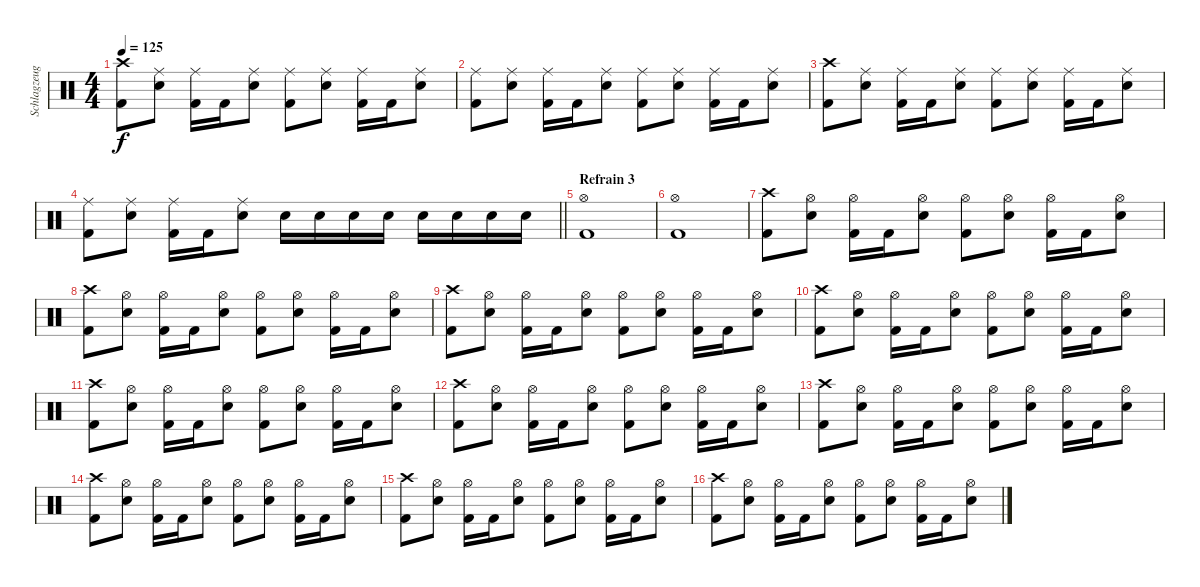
\track ("Schlagzeug" "Schlagzeug") {instrument percussion}
\staff {score}
\articulation defaults
\ts (4 4)
\tempo 125
\clef neutral
\ks c
("Crash high (hit)" "Kick (hit) 2").8{dy f} ("Ride (middle)" "Electric Snare (hit)").8 ("Ride (middle)" "Kick (hit) 2").16 "Kick (hit) 2".16 ("Ride (middle)" "Electric Snare (hit)").8 ("Ride (middle)" "Kick (hit) 2").8 ("Ride (middle)" "Electric Snare (hit)").8 ("Ride (middle)" "Kick (hit) 2").16 "Kick (hit) 2".16 ("Ride (middle)" "Electric Snare (hit)").8 |
("Ride (middle)" "Kick (hit) 2").8 ("Ride (middle)" "Electric Snare (hit)").8 ("Ride (middle)" "Kick (hit) 2").16 "Kick (hit) 2".16 ("Ride (middle)" "Electric Snare (hit)").8 ("Ride (middle)" "Kick (hit) 2").8 ("Ride (middle)" "Electric Snare (hit)").8 ("Ride (middle)" "Kick (hit) 2").16 "Kick (hit) 2".16 ("Ride (middle)" "Electric Snare (hit)").8 |
("Crash high (hit)" "Kick (hit) 2").8 ("Ride (middle)" "Electric Snare (hit)").8 ("Ride (middle)" "Kick (hit) 2").16 "Kick (hit) 2".16 ("Ride (middle)" "Electric Snare (hit)").8 ("Ride (middle)" "Kick (hit) 2").8 ("Ride (middle)" "Electric Snare (hit)").8 ("Ride (middle)" "Kick (hit) 2").16 "Kick (hit) 2".16 ("Ride (middle)" "Electric Snare (hit)").8 |
\barLineRight lightlight
("Ride (middle)" "Kick (hit) 2").8 ("Ride (middle)" "Electric Snare (hit)").8 ("Ride (middle)" "Kick (hit) 2").16 "Kick (hit) 2".16 ("Ride (middle)" "Electric Snare (hit)").8 "Electric Snare (hit)".16 "Electric Snare (hit)".16 "Electric Snare (hit)".16 "Electric Snare (hit)".16 "Electric Snare (hit)".16 "Electric Snare (hit)".16 "Electric Snare (hit)".16 "Electric Snare (hit)".16 |
\section ("" "Refrain 3")
("Hi-Hat (open)" "Kick (hit) 2").1 |
("Hi-Hat (open)" "Kick (hit) 2").1 |
("Crash high (hit)" "Kick (hit) 2").8 ("Hi-Hat (open)" "Electric Snare (hit)").8 ("Hi-Hat (open)" "Kick (hit) 2").16 "Kick (hit) 2".16 ("Hi-Hat (open)" "Electric Snare (hit)").8 ("Hi-Hat (open)" "Kick (hit) 2").8 ("Hi-Hat (open)" "Electric Snare (hit)").8 ("Hi-Hat (open)" "Kick (hit) 2").16 "Kick (hit) 2".16 ("Hi-Hat (open)" "Electric Snare (hit)").8 |
("Crash high (hit)" "Kick (hit) 2").8 ("Hi-Hat (open)" "Electric Snare (hit)").8 ("Hi-Hat (open)" "Kick (hit) 2").16 "Kick (hit) 2".16 ("Hi-Hat (open)" "Electric Snare (hit)").8 ("Hi-Hat (open)" "Kick (hit) 2").8 ("Hi-Hat (open)" "Electric Snare (hit)").8 ("Hi-Hat (open)" "Kick (hit) 2").16 "Kick (hit) 2".16 ("Hi-Hat (open)" "Electric Snare (hit)").8 |
("Crash high (hit)" "Kick (hit) 2").8 ("Hi-Hat (open)" "Electric Snare (hit)").8 ("Hi-Hat (open)" "Kick (hit) 2").16 "Kick (hit) 2".16 ("Hi-Hat (open)" "Electric Snare (hit)").8 ("Hi-Hat (open)" "Kick (hit) 2").8 ("Hi-Hat (open)" "Electric Snare (hit)").8 ("Hi-Hat (open)" "Kick (hit) 2").16 "Kick (hit) 2".16 ("Hi-Hat (open)" "Electric Snare (hit)").8 |
("Crash high (hit)" "Kick (hit) 2").8 ("Hi-Hat (open)" "Electric Snare (hit)").8 ("Hi-Hat (open)" "Kick (hit) 2").16 "Kick (hit) 2".16 ("Hi-Hat (open)" "Electric Snare (hit)").8 ("Hi-Hat (open)" "Kick (hit) 2").8 ("Hi-Hat (open)" "Electric Snare (hit)").8 ("Hi-Hat (open)" "Kick (hit) 2").16 "Kick (hit) 2".16 ("Hi-Hat (open)" "Electric Snare (hit)").8 |
("Crash high (hit)" "Kick (hit) 2").8 ("Hi-Hat (open)" "Electric Snare (hit)").8 ("Hi-Hat (open)" "Kick (hit) 2").16 "Kick (hit) 2".16 ("Hi-Hat (open)" "Electric Snare (hit)").8 ("Hi-Hat (open)" "Kick (hit) 2").8 ("Hi-Hat (open)" "Electric Snare (hit)").8 ("Hi-Hat (open)" "Kick (hit) 2").16 "Kick (hit) 2".16 ("Hi-Hat (open)" "Electric Snare (hit)").8 |
("Crash high (hit)" "Kick (hit) 2").8 ("Hi-Hat (open)" "Electric Snare (hit)").8 ("Hi-Hat (open)" "Kick (hit) 2").16 "Kick (hit) 2".16 ("Hi-Hat (open)" "Electric Snare (hit)").8 ("Hi-Hat (open)" "Kick (hit) 2").8 ("Hi-Hat (open)" "Electric Snare (hit)").8 ("Hi-Hat (open)" "Kick (hit) 2").16 "Kick (hit) 2".16 ("Hi-Hat (open)" "Electric Snare (hit)").8 |
("Crash high (hit)" "Kick (hit) 2").8 ("Hi-Hat (open)" "Electric Snare (hit)").8 ("Hi-Hat (open)" "Kick (hit) 2").16 "Kick (hit) 2".16 ("Hi-Hat (open)" "Electric Snare (hit)").8 ("Hi-Hat (open)" "Kick (hit) 2").8 ("Hi-Hat (open)" "Electric Snare (hit)").8 ("Hi-Hat (open)" "Kick (hit) 2").16 "Kick (hit) 2".16 ("Hi-Hat (open)" "Electric Snare (hit)").8 |
("Crash high (hit)" "Kick (hit) 2").8 ("Hi-Hat (open)" "Electric Snare (hit)").8 ("Hi-Hat (open)" "Kick (hit) 2").16 "Kick (hit) 2".16 ("Hi-Hat (open)" "Electric Snare (hit)").8 ("Hi-Hat (open)" "Kick (hit) 2").8 ("Hi-Hat (open)" "Electric Snare (hit)").8 ("Hi-Hat (open)" "Kick (hit) 2").16 "Kick (hit) 2".16 ("Hi-Hat (open)" "Electric Snare (hit)").8 |
("Crash high (hit)" "Kick (hit) 2").8 ("Hi-Hat (open)" "Electric Snare (hit)").8 ("Hi-Hat (open)" "Kick (hit) 2").16 "Kick (hit) 2".16 ("Hi-Hat (open)" "Electric Snare (hit)").8 ("Hi-Hat (open)" "Kick (hit) 2").8 ("Hi-Hat (open)" "Electric Snare (hit)").8 ("Hi-Hat (open)" "Kick (hit) 2").16 "Kick (hit) 2".16 ("Hi-Hat (open)" "Electric Snare (hit)").8 |
("Crash high (hit)" "Kick (hit) 2").8 ("Hi-Hat (open)" "Electric Snare (hit)").8 ("Hi-Hat (open)" "Kick (hit) 2").16 "Kick (hit) 2".16 ("Hi-Hat (open)" "Electric Snare (hit)").8 ("Hi-Hat (open)" "Kick (hit) 2").8 ("Hi-Hat (open)" "Electric Snare (hit)").8 ("Hi-Hat (open)" "Kick (hit) 2").16 "Kick (hit) 2".16 ("Hi-Hat (open)" "Electric Snare (hit)").8
